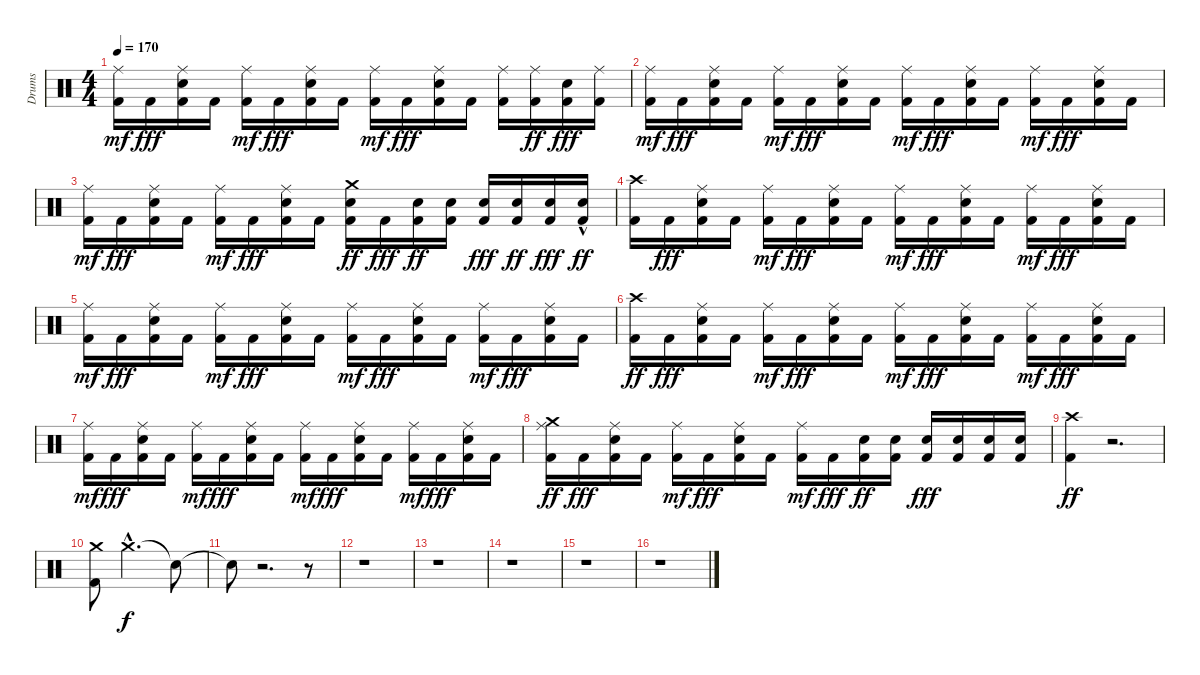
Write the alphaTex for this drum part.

\track ("Drums" "Drums") {instrument percussion}
\staff {score}
\articulation defaults
\ts (4 4)
\tempo 170
\clef neutral
\ks c
("Kick (hit) 2" "Ride (middle)").16{dy mf} "Kick (hit) 2".16{dy fff} ("Kick (hit) 2" "Snare (hit) 2" "Ride (middle)").16 "Kick (hit) 2".16 ("Kick (hit) 2" "Ride (middle)").16{dy mf} "Kick (hit) 2".16{dy fff} ("Kick (hit) 2" "Snare (hit) 2" "Ride (middle)").16 "Kick (hit) 2".16 ("Kick (hit) 2" "Ride (middle)").16{dy mf} "Kick (hit) 2".16{dy fff} ("Kick (hit) 2" "Snare (hit) 2" "Ride (middle)").16 "Kick (hit) 2".16 ("Kick (hit) 2" "Ride (middle)").16 ("Kick (hit) 2" "Ride (middle)").16{dy ff} ("Kick (hit) 2" "Snare (hit) 2").16{dy fff} ("Kick (hit) 2" "Ride (middle)").16 |
("Kick (hit) 2" "Ride (middle)").16{dy mf} "Kick (hit) 2".16{dy fff} ("Kick (hit) 2" "Snare (hit) 2" "Ride (middle)").16 "Kick (hit) 2".16 ("Kick (hit) 2" "Ride (middle)").16{dy mf} "Kick (hit) 2".16{dy fff} ("Kick (hit) 2" "Snare (hit) 2" "Ride (middle)").16 "Kick (hit) 2".16 ("Kick (hit) 2" "Ride (middle)").16{dy mf} "Kick (hit) 2".16{dy fff} ("Kick (hit) 2" "Snare (hit) 2" "Ride (middle)").16 "Kick (hit) 2".16 ("Kick (hit) 2" "Ride (middle)").16{dy mf} "Kick (hit) 2".16{dy fff} ("Kick (hit) 2" "Snare (hit) 2" "Ride (middle)").16 "Kick (hit) 2".16 |
("Kick (hit) 2" "Ride (middle)").16{dy mf} "Kick (hit) 2".16{dy fff} ("Kick (hit) 2" "Snare (hit) 2" "Ride (middle)").16 "Kick (hit) 2".16 ("Kick (hit) 2" "Ride (middle)").16{dy mf} "Kick (hit) 2".16{dy fff} ("Kick (hit) 2" "Snare (hit) 2" "Ride (middle)").16 "Kick (hit) 2".16 ("Kick (hit) 2" "Snare (hit) 2" "Crash medium (hit)").16{dy ff} "Kick (hit) 2".16{dy fff} ("Kick (hit) 2" "Snare (hit) 2").16{dy ff} ("Kick (hit) 2" "Snare (hit) 2").16 ("Kick (hit) 2" "Snare (hit) 2").16{dy fff} ("Kick (hit) 2" "Snare (hit) 2").16{dy ff} ("Kick (hit) 2" "Snare (hit) 2").16{dy fff} ("Kick (hit) 2" "Snare (hit) 2"{hac}).16{dy ff} |
("Kick (hit) 2" "Crash high (hit)").16 "Kick (hit) 2".16{dy fff} ("Kick (hit) 2" "Snare (hit) 2" "Ride (middle)").16 "Kick (hit) 2".16 ("Kick (hit) 2" "Ride (middle)").16{dy mf} "Kick (hit) 2".16{dy fff} ("Kick (hit) 2" "Snare (hit) 2" "Ride (middle)").16 "Kick (hit) 2".16 ("Kick (hit) 2" "Ride (middle)").16{dy mf} "Kick (hit) 2".16{dy fff} ("Kick (hit) 2" "Snare (hit) 2" "Ride (middle)").16 "Kick (hit) 2".16 ("Kick (hit) 2" "Ride (middle)").16{dy mf} "Kick (hit) 2".16{dy fff} ("Kick (hit) 2" "Snare (hit) 2" "Ride (middle)").16 "Kick (hit) 2".16 |
("Kick (hit) 2" "Ride (middle)").16{dy mf} "Kick (hit) 2".16{dy fff} ("Kick (hit) 2" "Snare (hit) 2" "Ride (middle)").16 "Kick (hit) 2".16 ("Kick (hit) 2" "Ride (middle)").16{dy mf} "Kick (hit) 2".16{dy fff} ("Kick (hit) 2" "Snare (hit) 2" "Ride (middle)").16 "Kick (hit) 2".16 ("Kick (hit) 2" "Ride (middle)").16{dy mf} "Kick (hit) 2".16{dy fff} ("Kick (hit) 2" "Snare (hit) 2" "Ride (middle)").16 "Kick (hit) 2".16 ("Kick (hit) 2" "Ride (middle)").16{dy mf} "Kick (hit) 2".16{dy fff} ("Kick (hit) 2" "Snare (hit) 2" "Ride (middle)").16 "Kick (hit) 2".16 |
("Kick (hit) 2" "Crash high (hit)").16{dy ff} "Kick (hit) 2".16{dy fff} ("Kick (hit) 2" "Snare (hit) 2" "Ride (middle)").16 "Kick (hit) 2".16 ("Kick (hit) 2" "Ride (middle)").16{dy mf} "Kick (hit) 2".16{dy fff} ("Kick (hit) 2" "Snare (hit) 2" "Ride (middle)").16 "Kick (hit) 2".16 ("Kick (hit) 2" "Ride (middle)").16{dy mf} "Kick (hit) 2".16{dy fff} ("Kick (hit) 2" "Snare (hit) 2" "Ride (middle)").16 "Kick (hit) 2".16 ("Kick (hit) 2" "Ride (middle)").16{dy mf} "Kick (hit) 2".16{dy fff} ("Kick (hit) 2" "Snare (hit) 2" "Ride (middle)").16 "Kick (hit) 2".16 |
("Kick (hit) 2" "Ride (middle)").16{dy mf} "Kick (hit) 2".16{dy fff} ("Kick (hit) 2" "Snare (hit) 2" "Ride (middle)").16 "Kick (hit) 2".16 ("Kick (hit) 2" "Ride (middle)").16{dy mf} "Kick (hit) 2".16{dy fff} ("Kick (hit) 2" "Snare (hit) 2" "Ride (middle)").16 "Kick (hit) 2".16 ("Kick (hit) 2" "Ride (middle)").16{dy mf} "Kick (hit) 2".16{dy fff} ("Kick (hit) 2" "Snare (hit) 2" "Ride (middle)").16 "Kick (hit) 2".16 ("Kick (hit) 2" "Ride (middle)").16{dy mf} "Kick (hit) 2".16{dy fff} ("Kick (hit) 2" "Snare (hit) 2" "Ride (middle)").16 "Kick (hit) 2".16 |
("Kick (hit) 2" "Ride (middle)" "Crash medium (hit)").16{dy ff} "Kick (hit) 2".16{dy fff} ("Kick (hit) 2" "Snare (hit) 2" "Ride (middle)").16 "Kick (hit) 2".16 ("Kick (hit) 2" "Ride (middle)").16{dy mf} "Kick (hit) 2".16{dy fff} ("Kick (hit) 2" "Snare (hit) 2" "Ride (middle)").16 "Kick (hit) 2".16 ("Kick (hit) 2" "Ride (middle)").16{dy mf} "Kick (hit) 2".16{dy fff} ("Kick (hit) 2" "Snare (hit) 2").16{dy ff} ("Kick (hit) 2" "Snare (hit) 2").16 ("Kick (hit) 2" "Snare (hit) 2").16{dy fff} ("Kick (hit) 2" "Snare (hit) 2").16 ("Kick (hit) 2" "Snare (hit) 2").16 ("Kick (hit) 2" "Snare (hit) 2").16 |
("Kick (hit) 2" "Crash high (hit)").4{dy ff} r.2{d} |
("Kick (hit) 2" "Crash medium (hit)").8 "Crash medium (hit)"{hac}.2{d dy f} "Snare (hit)"{t}.8 |
"Snare (hit)"{t}.8 r.2{d} r.8 |
r.1 |
r.1 |
r.1 |
r.1 |
r.1
